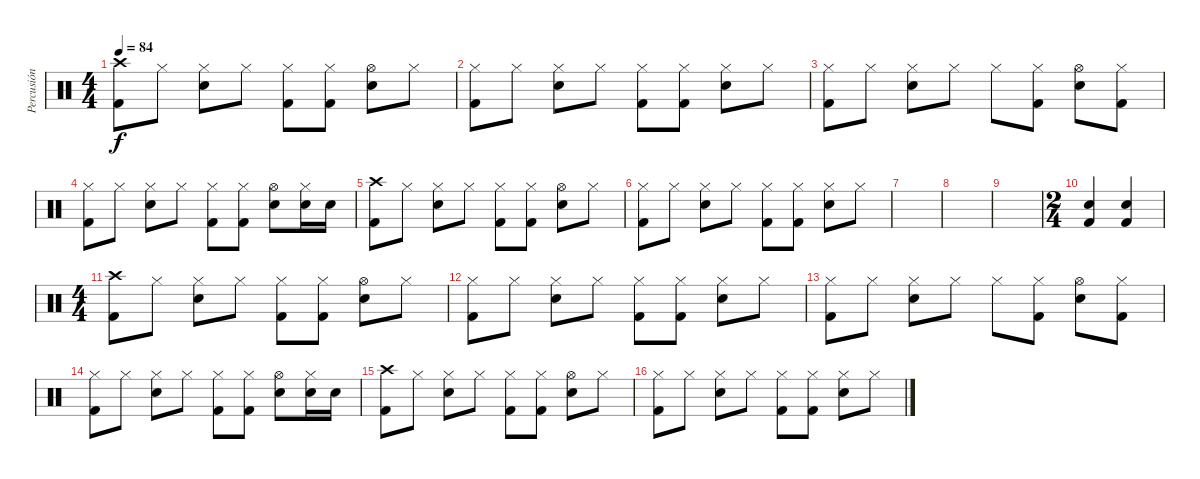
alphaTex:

\track ("Percusión" "Percusión") {instrument percussion}
\staff {score}
\articulation defaults
\ts (4 4)
\tempo 84
\clef neutral
\ks c
("Crash high (hit)" "Kick (hit) 2").8{dy f} "Hi-Hat (closed)".8 ("Hi-Hat (closed)" "Electric Snare (hit)").8 "Hi-Hat (closed)".8 ("Hi-Hat (closed)" "Kick (hit) 2").8 ("Hi-Hat (closed)" "Kick (hit) 2").8 ("Hi-Hat (open)" "Electric Snare (hit)").8 "Hi-Hat (closed)".8 |
("Hi-Hat (closed)" "Kick (hit) 2").8 "Hi-Hat (closed)".8 ("Hi-Hat (closed)" "Electric Snare (hit)").8 "Hi-Hat (closed)".8 ("Hi-Hat (closed)" "Kick (hit) 2").8 ("Hi-Hat (closed)" "Kick (hit) 2").8 ("Hi-Hat (closed)" "Electric Snare (hit)").8 "Hi-Hat (closed)".8 |
("Hi-Hat (closed)" "Kick (hit) 2").8 "Hi-Hat (closed)".8 ("Hi-Hat (closed)" "Electric Snare (hit)").8 "Hi-Hat (closed)".8 "Hi-Hat (closed)".8 ("Hi-Hat (closed)" "Kick (hit) 2").8 ("Hi-Hat (open)" "Electric Snare (hit)").8 ("Hi-Hat (closed)" "Kick (hit) 2").8 |
("Hi-Hat (closed)" "Kick (hit) 2").8 "Hi-Hat (closed)".8 ("Hi-Hat (closed)" "Electric Snare (hit)").8 "Hi-Hat (closed)".8 ("Hi-Hat (closed)" "Kick (hit) 2").8 ("Hi-Hat (closed)" "Kick (hit) 2").8 ("Hi-Hat (open)" "Electric Snare (hit)").8 ("Hi-Hat (closed)" "Electric Snare (hit)").16 "Electric Snare (hit)".16 |
("Crash high (hit)" "Kick (hit) 2").8 "Hi-Hat (closed)".8 ("Hi-Hat (closed)" "Electric Snare (hit)").8 "Hi-Hat (closed)".8 ("Hi-Hat (closed)" "Kick (hit) 2").8 ("Hi-Hat (closed)" "Kick (hit) 2").8 ("Hi-Hat (open)" "Electric Snare (hit)").8 "Hi-Hat (closed)".8 |
("Hi-Hat (closed)" "Kick (hit) 2").8 "Hi-Hat (closed)".8 ("Hi-Hat (closed)" "Electric Snare (hit)").8 "Hi-Hat (closed)".8 ("Hi-Hat (closed)" "Kick (hit) 2").8 ("Hi-Hat (closed)" "Kick (hit) 2").8 ("Hi-Hat (closed)" "Electric Snare (hit)").8 "Hi-Hat (closed)".8 |
|
|
|
\ts (2 4)
("Kick (hit) 2" "Electric Snare (hit)").4 ("Kick (hit) 2" "Electric Snare (hit)").4 |
\ts (4 4)
("Crash high (hit)" "Kick (hit) 2").8 "Hi-Hat (closed)".8 ("Hi-Hat (closed)" "Electric Snare (hit)").8 "Hi-Hat (closed)".8 ("Hi-Hat (closed)" "Kick (hit) 2").8 ("Hi-Hat (closed)" "Kick (hit) 2").8 ("Hi-Hat (open)" "Electric Snare (hit)").8 "Hi-Hat (closed)".8 |
("Hi-Hat (closed)" "Kick (hit) 2").8 "Hi-Hat (closed)".8 ("Hi-Hat (closed)" "Electric Snare (hit)").8 "Hi-Hat (closed)".8 ("Hi-Hat (closed)" "Kick (hit) 2").8 ("Hi-Hat (closed)" "Kick (hit) 2").8 ("Hi-Hat (closed)" "Electric Snare (hit)").8 "Hi-Hat (closed)".8 |
("Hi-Hat (closed)" "Kick (hit) 2").8 "Hi-Hat (closed)".8 ("Hi-Hat (closed)" "Electric Snare (hit)").8 "Hi-Hat (closed)".8 "Hi-Hat (closed)".8 ("Hi-Hat (closed)" "Kick (hit) 2").8 ("Hi-Hat (open)" "Electric Snare (hit)").8 ("Hi-Hat (closed)" "Kick (hit) 2").8 |
("Hi-Hat (closed)" "Kick (hit) 2").8 "Hi-Hat (closed)".8 ("Hi-Hat (closed)" "Electric Snare (hit)").8 "Hi-Hat (closed)".8 ("Hi-Hat (closed)" "Kick (hit) 2").8 ("Hi-Hat (closed)" "Kick (hit) 2").8 ("Hi-Hat (open)" "Electric Snare (hit)").8 ("Hi-Hat (closed)" "Electric Snare (hit)").16 "Electric Snare (hit)".16 |
("Crash high (hit)" "Kick (hit) 2").8 "Hi-Hat (closed)".8 ("Hi-Hat (closed)" "Electric Snare (hit)").8 "Hi-Hat (closed)".8 ("Hi-Hat (closed)" "Kick (hit) 2").8 ("Hi-Hat (closed)" "Kick (hit) 2").8 ("Hi-Hat (open)" "Electric Snare (hit)").8 "Hi-Hat (closed)".8 |
("Hi-Hat (closed)" "Kick (hit) 2").8 "Hi-Hat (closed)".8 ("Hi-Hat (closed)" "Electric Snare (hit)").8 "Hi-Hat (closed)".8 ("Hi-Hat (closed)" "Kick (hit) 2").8 ("Hi-Hat (closed)" "Kick (hit) 2").8 ("Hi-Hat (closed)" "Electric Snare (hit)").8 "Hi-Hat (closed)".8
